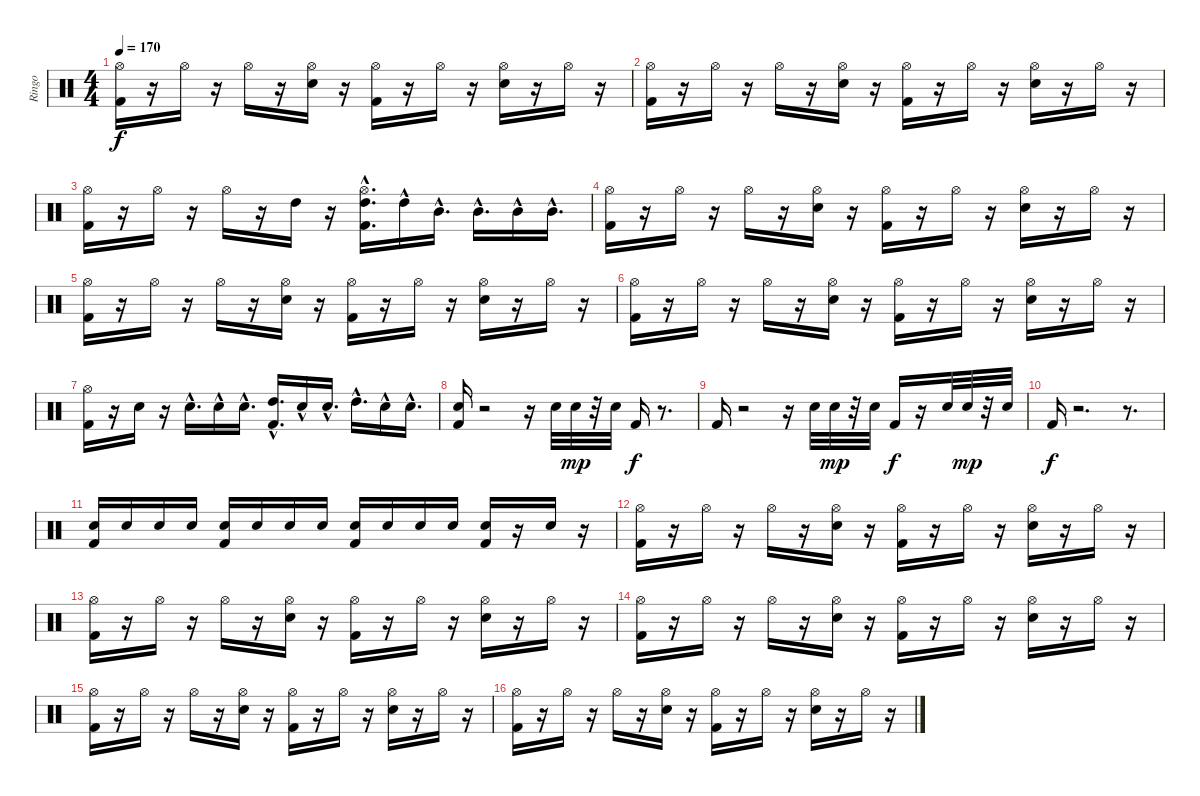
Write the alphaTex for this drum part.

\track ("Ringo" "Ringo") {instrument percussion}
\staff {score}
\articulation defaults
\ts (4 4)
\tempo 170
\clef neutral
\ks c
("Hi-Hat (open)" "Kick (hit) 2").16{dy f} r.16 "Hi-Hat (open)".16 r.16 "Hi-Hat (open)".16 r.16 ("Hi-Hat (open)" "Snare (hit) 2").16 r.16 ("Hi-Hat (open)" "Kick (hit) 2").16 r.16 "Hi-Hat (open)".16 r.16 ("Hi-Hat (open)" "Snare (hit) 2").16 r.16 "Hi-Hat (open)".16 r.16 |
("Hi-Hat (open)" "Kick (hit) 2").16 r.16 "Hi-Hat (open)".16 r.16 "Hi-Hat (open)".16 r.16 ("Hi-Hat (open)" "Snare (hit) 2").16 r.16 ("Hi-Hat (open)" "Kick (hit) 2").16 r.16 "Hi-Hat (open)".16 r.16 ("Hi-Hat (open)" "Snare (hit) 2").16 r.16 "Hi-Hat (open)".16 r.16 |
("Hi-Hat (open)" "Kick (hit) 2").16 r.16 "Hi-Hat (open)".16 r.16 "Hi-Hat (open)".16 r.16 "High Tom (hit)".16 r.16 ("Kick (hit) 2" "Hi-Hat (open)"{hac} "High Tom (hit)"{hac}).16{d} "High Tom (hit)"{hac}.16 "Mid Tom (hit)"{hac}.16{d} "Mid Tom (hit)"{hac}.16{d} "Mid Tom (hit)"{hac}.16 "Mid Tom (hit)"{hac}.16{d} |
("Hi-Hat (open)" "Kick (hit) 2").16 r.16 "Hi-Hat (open)".16 r.16 "Hi-Hat (open)".16 r.16 ("Hi-Hat (open)" "Snare (hit) 2").16 r.16 ("Hi-Hat (open)" "Kick (hit) 2").16 r.16 "Hi-Hat (open)".16 r.16 ("Hi-Hat (open)" "Snare (hit) 2").16 r.16 "Hi-Hat (open)".16 r.16 |
("Kick (hit) 2" "Hi-Hat (open)").16 r.16 "Hi-Hat (open)".16 r.16 "Hi-Hat (open)".16 r.16 ("Hi-Hat (open)" "Snare (hit) 2").16 r.16 ("Kick (hit) 2" "Hi-Hat (open)").16 r.16 "Hi-Hat (open)".16 r.16 ("Hi-Hat (open)" "Snare (hit) 2").16 r.16 "Hi-Hat (open)".16 r.16 |
("Kick (hit) 2" "Hi-Hat (open)").16 r.16 "Hi-Hat (open)".16 r.16 "Hi-Hat (open)".16 r.16 ("Hi-Hat (open)" "Snare (hit) 2").16 r.16 ("Kick (hit) 2" "Hi-Hat (open)").16 r.16 "Hi-Hat (open)".16 r.16 ("Hi-Hat (open)" "Snare (hit) 2").16 r.16 "Hi-Hat (open)".16 r.16 |
("Hi-Hat (open)" "Kick (hit) 2").16 r.16 "Snare (hit) 2".16 r.16 "Snare (hit) 2"{hac}.16{d} "Snare (hit) 2"{hac}.16 "Snare (hit) 2"{hac}.16{d} ("High Tom (hit)"{hac} "Kick (hit) 2").16{d} "Snare (hit) 2"{hac}.16 "Snare (hit) 2"{hac}.16{d} "High Tom (hit)"{hac}.16{d} "Snare (hit) 2"{hac}.16 "Snare (hit) 2"{hac}.16{d} |
("Kick (hit) 2" "Snare (hit) 2").16 r.2 r.16 "Snare (hit) 2".32 "Snare (hit) 2".32{dy mp} r.32 "Snare (hit) 2".32 "Kick (hit) 2".16{dy f} r.8{d} |
"Kick (hit) 2".16 r.2 r.16 "Snare (hit) 2".32 "Snare (hit) 2".32{dy mp} r.32 "Snare (hit) 2".32 "Kick (hit) 2".16{dy f} r.16 "Snare (hit) 2".32 "Snare (hit) 2".32{dy mp} r.32 "Snare (hit) 2".32 |
"Kick (hit) 2".16{dy f} r.2{d} r.8{d} |
("Snare (hit) 2" "Kick (hit) 2").16 "Snare (hit) 2".16 "Snare (hit) 2".16 "Snare (hit) 2".16 ("Snare (hit) 2" "Kick (hit) 2").16 "Snare (hit) 2".16 "Snare (hit) 2".16 "Snare (hit) 2".16 ("Snare (hit) 2" "Kick (hit) 2").16 "Snare (hit) 2".16 "Snare (hit) 2".16 "Snare (hit) 2".16 ("Snare (hit) 2" "Kick (hit) 2").16 r.16 "Snare (hit) 2".16 r.16 |
("Kick (hit) 2" "Hi-Hat (open)").16 r.16 "Hi-Hat (open)".16 r.16 "Hi-Hat (open)".16 r.16 ("Snare (hit) 2" "Hi-Hat (open)").16 r.16 ("Kick (hit) 2" "Hi-Hat (open)").16 r.16 "Hi-Hat (open)".16 r.16 ("Snare (hit) 2" "Hi-Hat (open)").16 r.16 "Hi-Hat (open)".16 r.16 |
("Hi-Hat (open)" "Kick (hit) 2").16 r.16 "Hi-Hat (open)".16 r.16 "Hi-Hat (open)".16 r.16 ("Hi-Hat (open)" "Snare (hit) 2").16 r.16 ("Hi-Hat (open)" "Kick (hit) 2").16 r.16 "Hi-Hat (open)".16 r.16 ("Hi-Hat (open)" "Snare (hit) 2").16 r.16 "Hi-Hat (open)".16 r.16 |
("Hi-Hat (open)" "Kick (hit) 2").16 r.16 "Hi-Hat (open)".16 r.16 "Hi-Hat (open)".16 r.16 ("Hi-Hat (open)" "Snare (hit) 2").16 r.16 ("Hi-Hat (open)" "Kick (hit) 2").16 r.16 "Hi-Hat (open)".16 r.16 ("Hi-Hat (open)" "Snare (hit) 2").16 r.16 "Hi-Hat (open)".16 r.16 |
("Hi-Hat (open)" "Kick (hit) 2").16 r.16 "Hi-Hat (open)".16 r.16 "Hi-Hat (open)".16 r.16 ("Hi-Hat (open)" "Snare (hit) 2").16 r.16 ("Hi-Hat (open)" "Kick (hit) 2").16 r.16 "Hi-Hat (open)".16 r.16 ("Hi-Hat (open)" "Snare (hit) 2").16 r.16 "Hi-Hat (open)".16 r.16 |
("Hi-Hat (open)" "Kick (hit) 2").16 r.16 "Hi-Hat (open)".16 r.16 "Hi-Hat (open)".16 r.16 ("Hi-Hat (open)" "Snare (hit) 2").16 r.16 ("Hi-Hat (open)" "Kick (hit) 2").16 r.16 "Hi-Hat (open)".16 r.16 ("Hi-Hat (open)" "Snare (hit) 2").16 r.16 "Hi-Hat (open)".16 r.16
